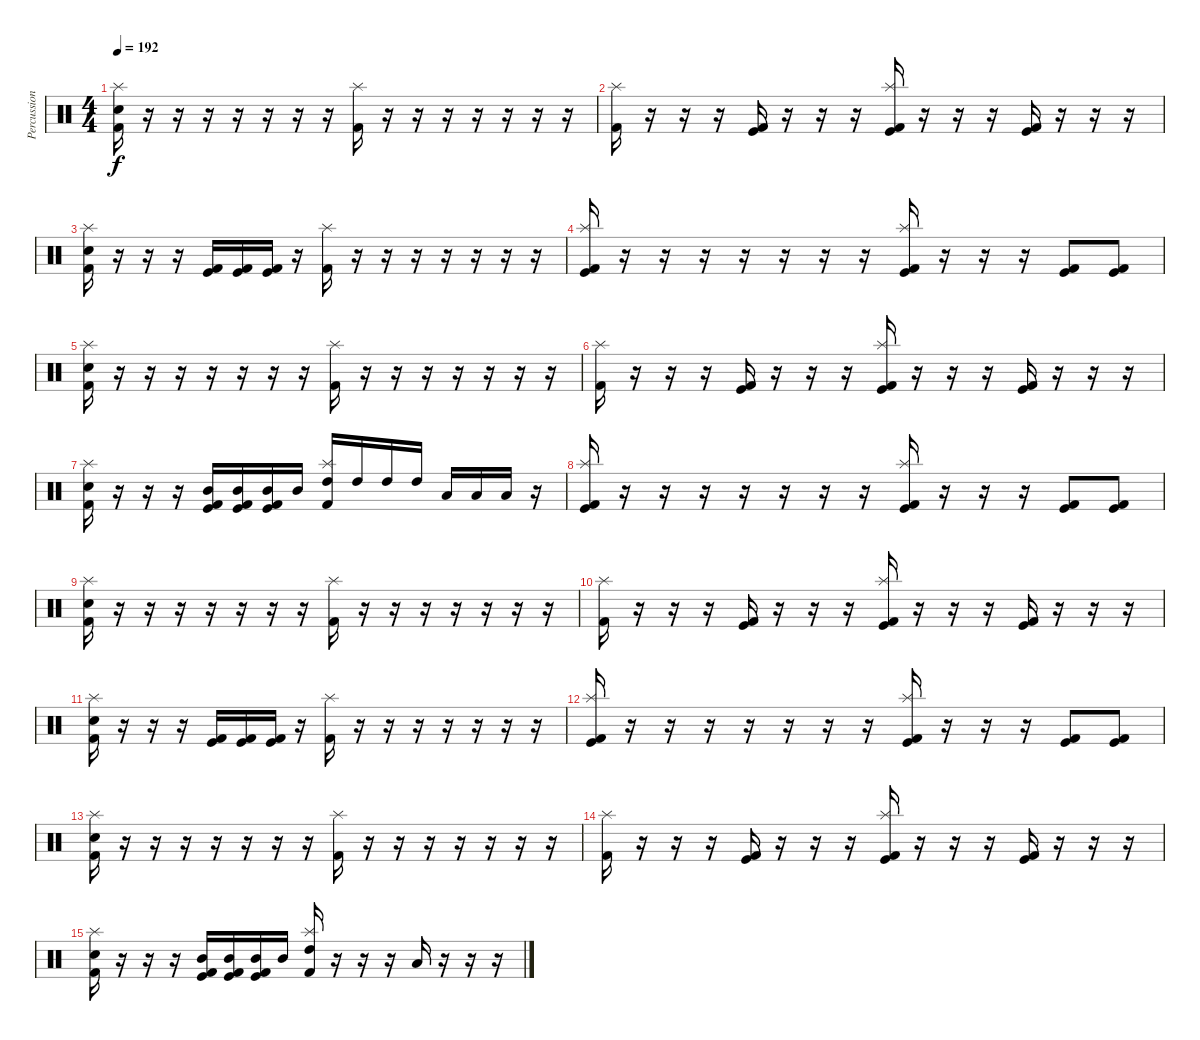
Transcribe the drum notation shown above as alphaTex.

\track ("Percussion" "Percussion") {instrument percussion}
\staff {score}
\articulation defaults
\ts (4 4)
\tempo 192
\clef neutral
\ks c
("Kick (hit) 2" "Electric Snare (hit)" "Splash (hit)").16{dy f} r.16 r.16 r.16 r.16 r.16 r.16 r.16 ("Kick (hit) 2" "Splash (hit)").16 r.16 r.16 r.16 r.16 r.16 r.16 r.16 |
("Kick (hit) 2" "Splash (hit)").16 r.16 r.16 r.16 ("Kick (hit) 2" "Kick (hit)").16 r.16 r.16 r.16 ("Kick (hit) 2" "Kick (hit)" "Splash (hit)").16 r.16 r.16 r.16 ("Kick (hit) 2" "Kick (hit)").16 r.16 r.16 r.16 |
("Kick (hit) 2" "Electric Snare (hit)" "Splash (hit)").16 r.16 r.16 r.16 ("Kick (hit) 2" "Kick (hit)").16 ("Kick (hit) 2" "Kick (hit)").16 ("Kick (hit) 2" "Kick (hit)").16 r.16 ("Kick (hit) 2" "Splash (hit)").16 r.16 r.16 r.16 r.16 r.16 r.16 r.16 |
("Kick (hit) 2" "Kick (hit)" "Splash (hit)").16 r.16 r.16 r.16 r.16 r.16 r.16 r.16 ("Kick (hit) 2" "Kick (hit)" "Splash (hit)").16 r.16 r.16 r.16 ("Kick (hit) 2" "Kick (hit)").8 ("Kick (hit) 2" "Kick (hit)").8 |
("Kick (hit) 2" "Electric Snare (hit)" "Splash (hit)").16 r.16 r.16 r.16 r.16 r.16 r.16 r.16 ("Kick (hit) 2" "Splash (hit)").16 r.16 r.16 r.16 r.16 r.16 r.16 r.16 |
("Kick (hit) 2" "Splash (hit)").16 r.16 r.16 r.16 ("Kick (hit) 2" "Kick (hit)").16 r.16 r.16 r.16 ("Kick (hit) 2" "Kick (hit)" "Splash (hit)").16 r.16 r.16 r.16 ("Kick (hit) 2" "Kick (hit)").16 r.16 r.16 r.16 |
("Kick (hit) 2" "Electric Snare (hit)" "Splash (hit)").16 r.16 r.16 r.16 ("Kick (hit) 2" "Kick (hit)" "Mid Tom (hit)").16 ("Kick (hit) 2" "Kick (hit)" "Mid Tom (hit)").16 ("Kick (hit) 2" "Kick (hit)" "Mid Tom (hit)").16 "Mid Tom (hit)".16 ("Kick (hit) 2" "High Tom (hit)" "Splash (hit)").16 "High Tom (hit)".16 "High Tom (hit)".16 "High Tom (hit)".16 "Low Tom (hit)".16 "Low Tom (hit)".16 "Low Floor Tom (hit)".16 r.16 |
("Kick (hit) 2" "Kick (hit)" "Splash (hit)").16 r.16 r.16 r.16 r.16 r.16 r.16 r.16 ("Kick (hit) 2" "Kick (hit)" "Splash (hit)").16 r.16 r.16 r.16 ("Kick (hit) 2" "Kick (hit)").8 ("Kick (hit) 2" "Kick (hit)").8 |
("Kick (hit) 2" "Electric Snare (hit)" "Splash (hit)").16 r.16 r.16 r.16 r.16 r.16 r.16 r.16 ("Kick (hit) 2" "Splash (hit)").16 r.16 r.16 r.16 r.16 r.16 r.16 r.16 |
("Kick (hit) 2" "Splash (hit)").16 r.16 r.16 r.16 ("Kick (hit) 2" "Kick (hit)").16 r.16 r.16 r.16 ("Kick (hit) 2" "Kick (hit)" "Splash (hit)").16 r.16 r.16 r.16 ("Kick (hit) 2" "Kick (hit)").16 r.16 r.16 r.16 |
("Kick (hit) 2" "Electric Snare (hit)" "Splash (hit)").16 r.16 r.16 r.16 ("Kick (hit) 2" "Kick (hit)").16 ("Kick (hit) 2" "Kick (hit)").16 ("Kick (hit) 2" "Kick (hit)").16 r.16 ("Kick (hit) 2" "Splash (hit)").16 r.16 r.16 r.16 r.16 r.16 r.16 r.16 |
("Kick (hit) 2" "Kick (hit)" "Splash (hit)").16 r.16 r.16 r.16 r.16 r.16 r.16 r.16 ("Kick (hit) 2" "Kick (hit)" "Splash (hit)").16 r.16 r.16 r.16 ("Kick (hit) 2" "Kick (hit)").8 ("Kick (hit) 2" "Kick (hit)").8 |
("Kick (hit) 2" "Electric Snare (hit)" "Splash (hit)").16 r.16 r.16 r.16 r.16 r.16 r.16 r.16 ("Kick (hit) 2" "Splash (hit)").16 r.16 r.16 r.16 r.16 r.16 r.16 r.16 |
("Kick (hit) 2" "Splash (hit)").16 r.16 r.16 r.16 ("Kick (hit) 2" "Kick (hit)").16 r.16 r.16 r.16 ("Kick (hit) 2" "Kick (hit)" "Splash (hit)").16 r.16 r.16 r.16 ("Kick (hit) 2" "Kick (hit)").16 r.16 r.16 r.16 |
("Kick (hit) 2" "Electric Snare (hit)" "Splash (hit)").16 r.16 r.16 r.16 ("Kick (hit) 2" "Kick (hit)" "Mid Tom (hit)").16 ("Kick (hit) 2" "Kick (hit)" "Mid Tom (hit)").16 ("Kick (hit) 2" "Kick (hit)" "Mid Tom (hit)").16 "Mid Tom (hit)".16 ("Kick (hit) 2" "High Tom (hit)" "Splash (hit)").16 r.16 r.16 r.16 "Low Tom (hit)".16 r.16 r.16 r.16
